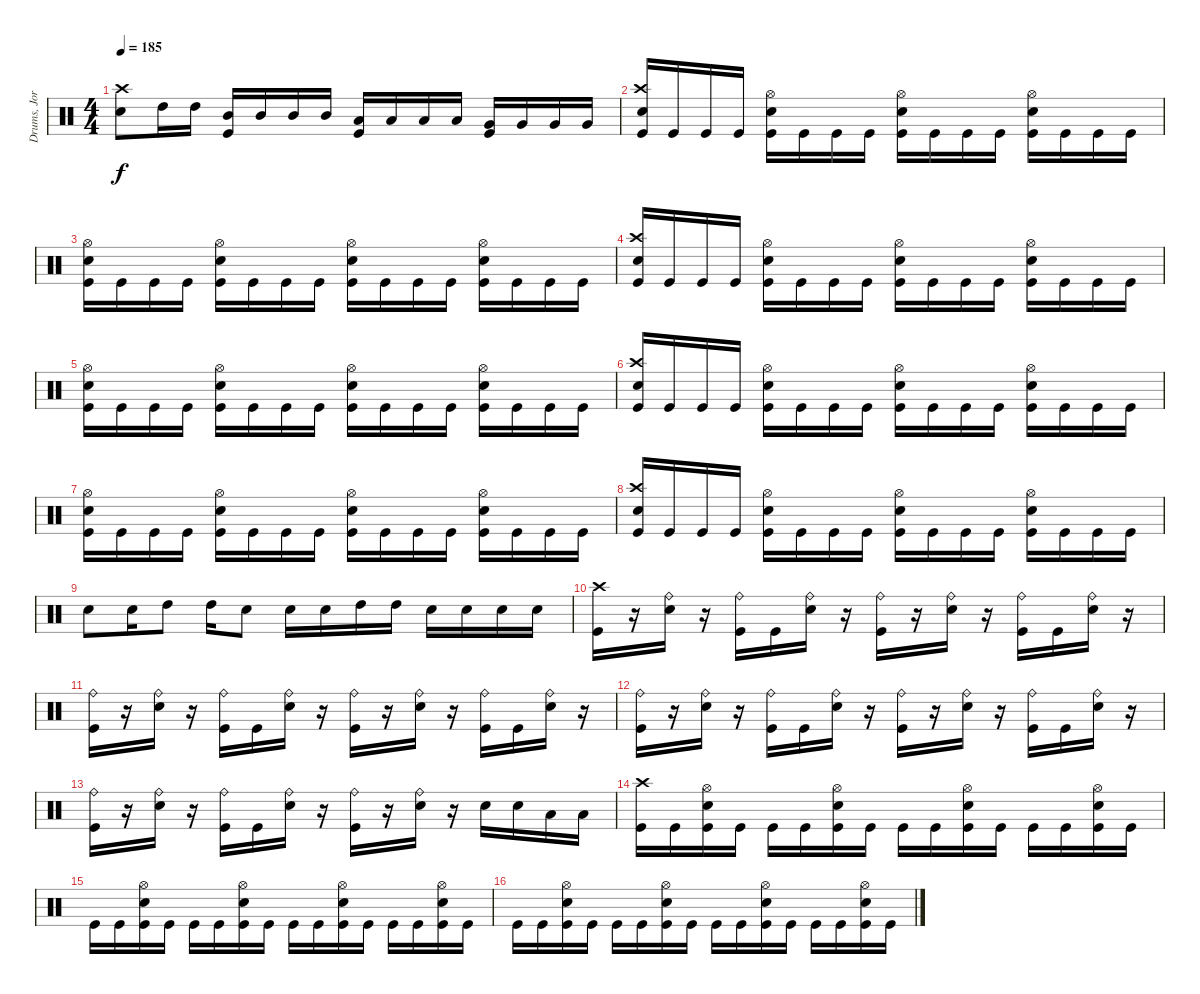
\track ("Drums, Jorye Sáez" "Drums, Jor") {instrument percussion}
\staff {score}
\articulation defaults
\ts (4 4)
\tempo 185
\clef neutral
\ks c
("Electric Snare (hit)" "Crash high (hit)").8{dy f} "High Tom (hit)".16 "High Tom (hit)".16 ("Mid Tom (hit)" "Kick (hit)").16 "Mid Tom (hit)".16 "Mid Tom (hit)".16 "Mid Tom (hit)".16 ("Low Tom (hit)" "Kick (hit)").16 "Low Tom (hit)".16 "Low Tom (hit)".16 "Low Tom (hit)".16 ("Very Low Tom (hit)" "Kick (hit)").16 "Very Low Tom (hit)".16 "Very Low Tom (hit)".16 "Very Low Tom (hit)".16 |
("Kick (hit)" "Electric Snare (hit)" "Crash high (hit)").16 "Kick (hit)".16 "Kick (hit)".16 "Kick (hit)".16 ("Kick (hit)" "Electric Snare (hit)" "Hi-Hat (open)").16 "Kick (hit)".16 "Kick (hit)".16 "Kick (hit)".16 ("Kick (hit)" "Electric Snare (hit)" "Hi-Hat (open)").16 "Kick (hit)".16 "Kick (hit)".16 "Kick (hit)".16 ("Kick (hit)" "Electric Snare (hit)" "Hi-Hat (open)").16 "Kick (hit)".16 "Kick (hit)".16 "Kick (hit)".16 |
("Kick (hit)" "Electric Snare (hit)" "Hi-Hat (open)").16 "Kick (hit)".16 "Kick (hit)".16 "Kick (hit)".16 ("Kick (hit)" "Electric Snare (hit)" "Hi-Hat (open)").16 "Kick (hit)".16 "Kick (hit)".16 "Kick (hit)".16 ("Kick (hit)" "Electric Snare (hit)" "Hi-Hat (open)").16 "Kick (hit)".16 "Kick (hit)".16 "Kick (hit)".16 ("Kick (hit)" "Electric Snare (hit)" "Hi-Hat (open)").16 "Kick (hit)".16 "Kick (hit)".16 "Kick (hit)".16 |
("Kick (hit)" "Electric Snare (hit)" "Crash high (hit)").16 "Kick (hit)".16 "Kick (hit)".16 "Kick (hit)".16 ("Kick (hit)" "Electric Snare (hit)" "Hi-Hat (open)").16 "Kick (hit)".16 "Kick (hit)".16 "Kick (hit)".16 ("Kick (hit)" "Electric Snare (hit)" "Hi-Hat (open)").16 "Kick (hit)".16 "Kick (hit)".16 "Kick (hit)".16 ("Kick (hit)" "Electric Snare (hit)" "Hi-Hat (open)").16 "Kick (hit)".16 "Kick (hit)".16 "Kick (hit)".16 |
("Kick (hit)" "Electric Snare (hit)" "Hi-Hat (open)").16 "Kick (hit)".16 "Kick (hit)".16 "Kick (hit)".16 ("Kick (hit)" "Electric Snare (hit)" "Hi-Hat (open)").16 "Kick (hit)".16 "Kick (hit)".16 "Kick (hit)".16 ("Kick (hit)" "Electric Snare (hit)" "Hi-Hat (open)").16 "Kick (hit)".16 "Kick (hit)".16 "Kick (hit)".16 ("Kick (hit)" "Electric Snare (hit)" "Hi-Hat (open)").16 "Kick (hit)".16 "Kick (hit)".16 "Kick (hit)".16 |
("Kick (hit)" "Electric Snare (hit)" "Crash high (hit)").16 "Kick (hit)".16 "Kick (hit)".16 "Kick (hit)".16 ("Kick (hit)" "Electric Snare (hit)" "Hi-Hat (open)").16 "Kick (hit)".16 "Kick (hit)".16 "Kick (hit)".16 ("Kick (hit)" "Electric Snare (hit)" "Hi-Hat (open)").16 "Kick (hit)".16 "Kick (hit)".16 "Kick (hit)".16 ("Kick (hit)" "Electric Snare (hit)" "Hi-Hat (open)").16 "Kick (hit)".16 "Kick (hit)".16 "Kick (hit)".16 |
("Kick (hit)" "Electric Snare (hit)" "Hi-Hat (open)").16 "Kick (hit)".16 "Kick (hit)".16 "Kick (hit)".16 ("Kick (hit)" "Electric Snare (hit)" "Hi-Hat (open)").16 "Kick (hit)".16 "Kick (hit)".16 "Kick (hit)".16 ("Kick (hit)" "Electric Snare (hit)" "Hi-Hat (open)").16 "Kick (hit)".16 "Kick (hit)".16 "Kick (hit)".16 ("Kick (hit)" "Electric Snare (hit)" "Hi-Hat (open)").16 "Kick (hit)".16 "Kick (hit)".16 "Kick (hit)".16 |
("Kick (hit)" "Electric Snare (hit)" "Crash high (hit)").16 "Kick (hit)".16 "Kick (hit)".16 "Kick (hit)".16 ("Kick (hit)" "Electric Snare (hit)" "Hi-Hat (open)").16 "Kick (hit)".16 "Kick (hit)".16 "Kick (hit)".16 ("Kick (hit)" "Electric Snare (hit)" "Hi-Hat (open)").16 "Kick (hit)".16 "Kick (hit)".16 "Kick (hit)".16 ("Kick (hit)" "Electric Snare (hit)" "Hi-Hat (open)").16 "Kick (hit)".16 "Kick (hit)".16 "Kick (hit)".16 |
"Electric Snare (hit)".8 "Electric Snare (hit)".16 "High Tom (hit)".8 "High Tom (hit)".16 "Electric Snare (hit)".8 "Electric Snare (hit)".16 "Electric Snare (hit)".16 "High Tom (hit)".16 "High Tom (hit)".16 "Electric Snare (hit)".16 "Electric Snare (hit)".16 "Electric Snare (hit)".16 "Electric Snare (hit)".16 |
("Kick (hit)" "Crash high (hit)").16 r.16 ("Electric Snare (hit)" "Ride (bell)").16 r.16 ("Kick (hit)" "Ride (bell)").16 "Kick (hit)".16 ("Electric Snare (hit)" "Ride (bell)").16 r.16 ("Kick (hit)" "Ride (bell)").16 r.16 ("Electric Snare (hit)" "Ride (bell)").16 r.16 ("Kick (hit)" "Ride (bell)").16 "Kick (hit)".16 ("Electric Snare (hit)" "Ride (bell)").16 r.16 |
("Kick (hit)" "Ride (bell)").16 r.16 ("Electric Snare (hit)" "Ride (bell)").16 r.16 ("Kick (hit)" "Ride (bell)").16 "Kick (hit)".16 ("Electric Snare (hit)" "Ride (bell)").16 r.16 ("Kick (hit)" "Ride (bell)").16 r.16 ("Electric Snare (hit)" "Ride (bell)").16 r.16 ("Kick (hit)" "Ride (bell)").16 "Kick (hit)".16 ("Electric Snare (hit)" "Ride (bell)").16 r.16 |
("Kick (hit)" "Ride (bell)").16 r.16 ("Electric Snare (hit)" "Ride (bell)").16 r.16 ("Kick (hit)" "Ride (bell)").16 "Kick (hit)".16 ("Electric Snare (hit)" "Ride (bell)").16 r.16 ("Kick (hit)" "Ride (bell)").16 r.16 ("Electric Snare (hit)" "Ride (bell)").16 r.16 ("Kick (hit)" "Ride (bell)").16 "Kick (hit)".16 ("Electric Snare (hit)" "Ride (bell)").16 r.16 |
("Kick (hit)" "Ride (bell)").16 r.16 ("Electric Snare (hit)" "Ride (bell)").16 r.16 ("Kick (hit)" "Ride (bell)").16 "Kick (hit)".16 ("Electric Snare (hit)" "Ride (bell)").16 r.16 ("Kick (hit)" "Ride (bell)").16 r.16 ("Electric Snare (hit)" "Ride (bell)").16 r.16 "Electric Snare (hit)".16 "Electric Snare (hit)".16 "Low Tom (hit)".16 "Low Tom (hit)".16 |
("Kick (hit)" "Crash high (hit)").16 "Kick (hit)".16 ("Kick (hit)" "Electric Snare (hit)" "Hi-Hat (open)").16 "Kick (hit)".16 "Kick (hit)".16 "Kick (hit)".16 ("Kick (hit)" "Electric Snare (hit)" "Hi-Hat (open)").16 "Kick (hit)".16 "Kick (hit)".16 "Kick (hit)".16 ("Kick (hit)" "Electric Snare (hit)" "Hi-Hat (open)").16 "Kick (hit)".16 "Kick (hit)".16 "Kick (hit)".16 ("Kick (hit)" "Electric Snare (hit)" "Hi-Hat (open)").16 "Kick (hit)".16 |
"Kick (hit)".16 "Kick (hit)".16 ("Kick (hit)" "Electric Snare (hit)" "Hi-Hat (open)").16 "Kick (hit)".16 "Kick (hit)".16 "Kick (hit)".16 ("Kick (hit)" "Electric Snare (hit)" "Hi-Hat (open)").16 "Kick (hit)".16 "Kick (hit)".16 "Kick (hit)".16 ("Kick (hit)" "Electric Snare (hit)" "Hi-Hat (open)").16 "Kick (hit)".16 "Kick (hit)".16 "Kick (hit)".16 ("Kick (hit)" "Electric Snare (hit)" "Hi-Hat (open)").16 "Kick (hit)".16 |
"Kick (hit)".16 "Kick (hit)".16 ("Kick (hit)" "Electric Snare (hit)" "Hi-Hat (open)").16 "Kick (hit)".16 "Kick (hit)".16 "Kick (hit)".16 ("Kick (hit)" "Electric Snare (hit)" "Hi-Hat (open)").16 "Kick (hit)".16 "Kick (hit)".16 "Kick (hit)".16 ("Kick (hit)" "Electric Snare (hit)" "Hi-Hat (open)").16 "Kick (hit)".16 "Kick (hit)".16 "Kick (hit)".16 ("Kick (hit)" "Electric Snare (hit)" "Hi-Hat (open)").16 "Kick (hit)".16
